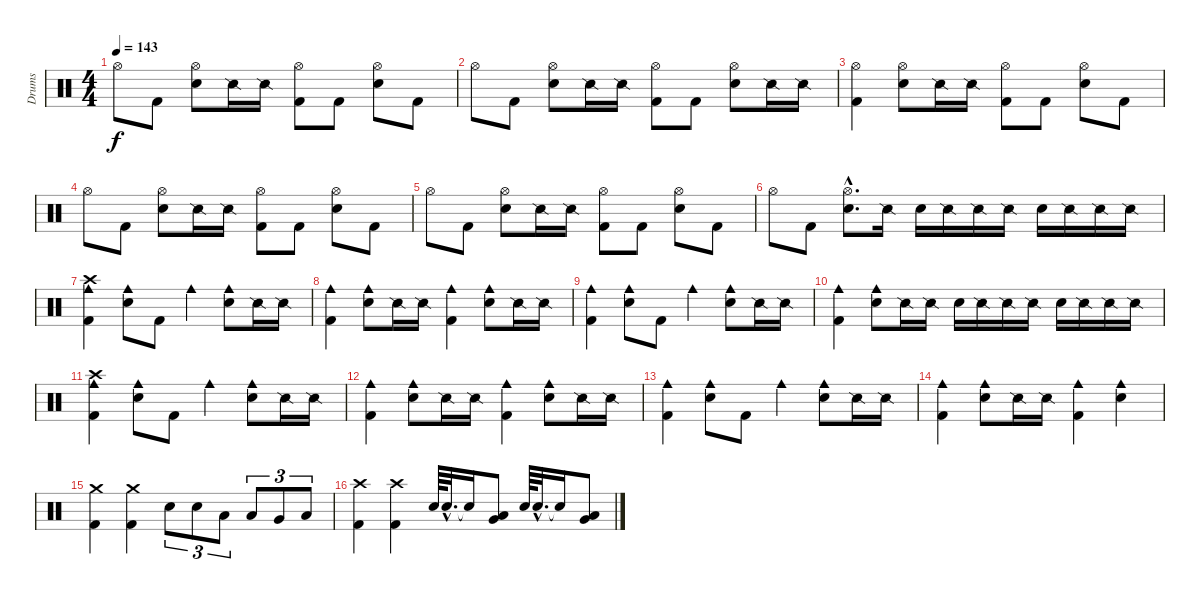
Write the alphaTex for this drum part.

\track ("Drums" "Drums") {instrument percussion}
\staff {score}
\articulation defaults
\ts (4 4)
\tempo 143
\clef neutral
\ks c "Hi-Hat (open)".8{dy f} "Kick (hit) 2".8
("Hi-Hat (open)" "Metronome (bell)").8 "Snare (side stick) 2".16 "Snare (side stick) 2".16 ("Hi-Hat (open)" "Kick (hit) 2").8 "Kick (hit) 2".8 ("Hi-Hat (open)" "Metronome (bell)").8 "Kick (hit) 2".8 |
"Hi-Hat (open)".8 "Kick (hit) 2".8 ("Hi-Hat (open)" "Metronome (bell)").8 "Snare (side stick) 2".16 "Snare (side stick) 2".16 ("Hi-Hat (open)" "Kick (hit) 2").8 "Kick (hit) 2".8 ("Hi-Hat (open)" "Metronome (bell)").8 "Snare (side stick) 2".16 "Snare (side stick) 2".16 |
("Hi-Hat (open)" "Kick (hit) 2").4 ("Hi-Hat (open)" "Metronome (bell)").8 "Snare (side stick) 2".16 "Snare (side stick) 2".16 ("Hi-Hat (open)" "Kick (hit) 2").8 "Kick (hit) 2".8 ("Hi-Hat (open)" "Metronome (bell)").8 "Kick (hit) 2".8 |
"Hi-Hat (open)".8 "Kick (hit) 2".8 ("Hi-Hat (open)" "Metronome (bell)").8 "Snare (side stick) 2".16 "Snare (side stick) 2".16 ("Hi-Hat (open)" "Kick (hit) 2").8 "Kick (hit) 2".8 ("Hi-Hat (open)" "Metronome (bell)").8 "Kick (hit) 2".8 |
"Hi-Hat (open)".8 "Kick (hit) 2".8 ("Hi-Hat (open)" "Metronome (bell)").8 "Snare (side stick) 2".16 "Snare (side stick) 2".16 ("Hi-Hat (open)" "Kick (hit) 2").8 "Kick (hit) 2".8 ("Hi-Hat (open)" "Metronome (bell)").8 "Kick (hit) 2".8 |
"Hi-Hat (open)".8 "Kick (hit) 2".8 ("Hi-Hat (open)"{hac} "Metronome (bell)"{hac}).8{d} "Snare (side stick) 2".16 "Metronome (bell)".16 "Snare (side stick) 2".16 "Snare (side stick) 2".16 "Snare (side stick) 2".16 "Metronome (bell)".16 "Snare (side stick) 2".16 "Snare (side stick) 2".16 "Snare (side stick) 2".16 |
("Cowbell medium (hit)" "Crash high (hit)" "Kick (hit) 2").4 ("Cowbell medium (hit)" "Metronome (bell)").8 "Kick (hit) 2".8 "Cowbell medium (hit)".4 ("Cowbell medium (hit)" "Metronome (bell)").8 "Snare (side stick) 2".16 "Snare (side stick) 2".16 |
("Cowbell medium (hit)" "Kick (hit) 2").4 ("Cowbell medium (hit)" "Metronome (bell)").8 "Snare (side stick) 2".16 "Snare (side stick) 2".16 ("Cowbell medium (hit)" "Kick (hit) 2").4 ("Cowbell medium (hit)" "Metronome (bell)").8 "Snare (side stick) 2".16 "Snare (side stick) 2".16 |
("Cowbell medium (hit)" "Kick (hit) 2").4 ("Cowbell medium (hit)" "Metronome (bell)").8 "Kick (hit) 2".8 "Cowbell medium (hit)".4 ("Cowbell medium (hit)" "Metronome (bell)").8 "Snare (side stick) 2".16 "Snare (side stick) 2".16 |
("Cowbell medium (hit)" "Kick (hit) 2").4 ("Cowbell medium (hit)" "Metronome (bell)").8 "Snare (side stick) 2".16 "Snare (side stick) 2".16 "Metronome (bell)".16 "Snare (side stick) 2".16 "Snare (side stick) 2".16 "Snare (side stick) 2".16 "Metronome (bell)".16 "Snare (side stick) 2".16 "Snare (side stick) 2".16 "Snare (side stick) 2".16 |
("Cowbell medium (hit)" "Crash high (hit)" "Kick (hit) 2").4 ("Cowbell medium (hit)" "Metronome (bell)").8 "Kick (hit) 2".8 "Cowbell medium (hit)".4 ("Cowbell medium (hit)" "Metronome (bell)").8 "Snare (side stick) 2".16 "Snare (side stick) 2".16 |
("Cowbell medium (hit)" "Kick (hit) 2").4 ("Cowbell medium (hit)" "Metronome (bell)").8 "Snare (side stick) 2".16 "Snare (side stick) 2".16 ("Cowbell medium (hit)" "Kick (hit) 2").4 ("Cowbell medium (hit)" "Metronome (bell)").8 "Snare (side stick) 2".16 "Snare (side stick) 2".16 |
("Cowbell medium (hit)" "Kick (hit) 2").4 ("Cowbell medium (hit)" "Metronome (bell)").8 "Kick (hit) 2".8 "Cowbell medium (hit)".4 ("Cowbell medium (hit)" "Metronome (bell)").8 "Snare (side stick) 2".16 "Snare (side stick) 2".16 |
("Cowbell medium (hit)" "Kick (hit) 2").4 ("Cowbell medium (hit)" "Metronome (bell)").8 "Snare (side stick) 2".16 "Snare (side stick) 2".16 ("Cowbell medium (hit)" "Kick (hit) 2").4 ("Cowbell medium (hit)" "Metronome (bell)").4 |
("Crash medium (hit)" "Kick (hit) 2").4 ("Crash medium (hit)" "Kick (hit) 2").4 "Metronome (bell)".8{tu (3 2)} "Metronome (bell)".8{tu (3 2)} "Low Tom (hit)".8{tu (3 2)} "Low Tom (hit)".8{tu (3 2)} "Very Low Tom (hit)".8{tu (3 2)} "Low Floor Tom (hit)".8{tu (3 2)} |
("Crash high (hit)" "Kick (hit) 2").4 ("Crash high (hit)" "Kick (hit) 2").4 "Metronome (bell)".64 "Metronome (bell)"{hac}.32{d} "Snare (hit)"{t}.16 ("Low Tom (hit)" "Very Low Tom (hit)").8 "Metronome (bell)".64 "Metronome (bell)"{hac}.32{d} "Snare (hit)"{t}.16 ("Very Low Tom (hit)" "Low Floor Tom (hit)").8
